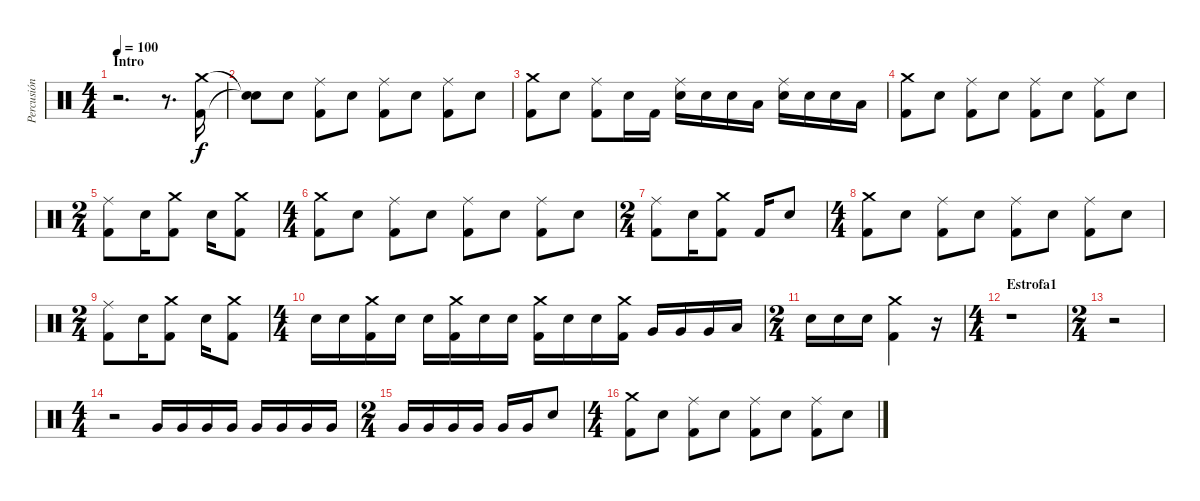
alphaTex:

\track ("Percusión" "Percusión") {instrument percussion}
\staff {score}
\articulation defaults
\ts (4 4)
\section ("" "Intro")
\tempo 100
\clef neutral
\ks c
r.2{d dy f} r.8{d} ("Crash medium (hit)" "Kick (hit) 2").16 |
("Snare (hit)"{t} "Snare (hit)"{t}).8 "Snare (hit) 2".8 ("Ride (middle)" "Kick (hit) 2").8 "Snare (hit) 2".8 ("Ride (middle)" "Kick (hit) 2").8 "Snare (hit) 2".8 ("Ride (middle)" "Kick (hit) 2").8 "Snare (hit) 2".8 |
("Crash medium (hit)" "Kick (hit) 2").8 "Snare (hit) 2".8 ("Ride (middle)" "Kick (hit) 2").8 "Snare (hit) 2".16 "Kick (hit) 2".16 ("Ride (middle)" "Snare (hit) 2").16 "Snare (hit) 2".16 "Snare (hit) 2".16 "Low Tom (hit)".16 ("Ride (middle)" "Snare (hit) 2").16 "Snare (hit) 2".16 "Snare (hit) 2".16 "Low Tom (hit)".16 |
("Crash medium (hit)" "Kick (hit) 2").8 "Snare (hit) 2".8 ("Ride (middle)" "Kick (hit) 2").8 "Snare (hit) 2".8 ("Ride (middle)" "Kick (hit) 2").8 "Snare (hit) 2".8 ("Ride (middle)" "Kick (hit) 2").8 "Snare (hit) 2".8 |
\ts (2 4)
("Ride (middle)" "Kick (hit) 2").8 "Snare (hit) 2".16 ("Crash medium (hit)" "Kick (hit) 2").8 "Snare (hit) 2".16 ("Kick (hit) 2" "Crash medium (hit)").8 |
\ts (4 4)
("Crash medium (hit)" "Kick (hit) 2").8 "Snare (hit) 2".8 ("Ride (middle)" "Kick (hit) 2").8 "Snare (hit) 2".8 ("Ride (middle)" "Kick (hit) 2").8 "Snare (hit) 2".8 ("Ride (middle)" "Kick (hit) 2").8 "Snare (hit) 2".8 |
\ts (2 4)
("Ride (middle)" "Kick (hit) 2").8 "Snare (hit) 2".16 ("Crash medium (hit)" "Kick (hit) 2").8 "Kick (hit) 2".16 "Snare (hit) 2".8 |
\ts (4 4)
("Crash medium (hit)" "Kick (hit) 2").8 "Snare (hit) 2".8 ("Ride (middle)" "Kick (hit) 2").8 "Snare (hit) 2".8 ("Ride (middle)" "Kick (hit) 2").8 "Snare (hit) 2".8 ("Ride (middle)" "Kick (hit) 2").8 "Snare (hit) 2".8 |
\ts (2 4)
("Ride (middle)" "Kick (hit) 2").8 "Snare (hit) 2".16 ("Crash medium (hit)" "Kick (hit) 2").8 "Snare (hit) 2".16 ("Kick (hit) 2" "Crash medium (hit)").8 |
\ts (4 4)
"Snare (hit) 2".16 "Snare (hit) 2".16 ("Crash medium (hit)" "Kick (hit) 2").16 "Snare (hit) 2".16 "Snare (hit) 2".16 ("Crash medium (hit)" "Kick (hit) 2").16 "Snare (hit) 2".16 "Snare (hit) 2".16 ("Crash medium (hit)" "Kick (hit) 2").16 "Snare (hit) 2".16 "Snare (hit) 2".16 ("Crash medium (hit)" "Kick (hit) 2").16 "Very Low Tom (hit)".16 "Very Low Tom (hit)".16 "Very Low Tom (hit)".16 "Low Tom (hit)".16 |
\ts (2 4)
"Snare (hit) 2".16 "Snare (hit) 2".16 "Snare (hit) 2".16 ("Crash medium (hit)" "Kick (hit) 2").4 r.16 |
\ts (4 4)
\section ("" "Estrofa1")
r.1 |
\ts (2 4)
r.2 |
\ts (4 4)
r.2 "Very Low Tom (hit)".16 "Very Low Tom (hit)".16 "Very Low Tom (hit)".16 "Very Low Tom (hit)".16 "Very Low Tom (hit)".16 "Very Low Tom (hit)".16 "Very Low Tom (hit)".16 "Very Low Tom (hit)".16 |
\ts (2 4)
"Very Low Tom (hit)".16 "Very Low Tom (hit)".16 "Very Low Tom (hit)".16 "Very Low Tom (hit)".16 "Very Low Tom (hit)".16 "Very Low Tom (hit)".16 "Snare (hit) 2".8 |
\ts (4 4)
("Crash medium (hit)" "Kick (hit) 2").8 "Snare (hit) 2".8 ("Ride (middle)" "Kick (hit) 2").8 "Snare (hit) 2".8 ("Ride (middle)" "Kick (hit) 2").8 "Snare (hit) 2".8 ("Ride (middle)" "Kick (hit) 2").8 "Snare (hit) 2".8
